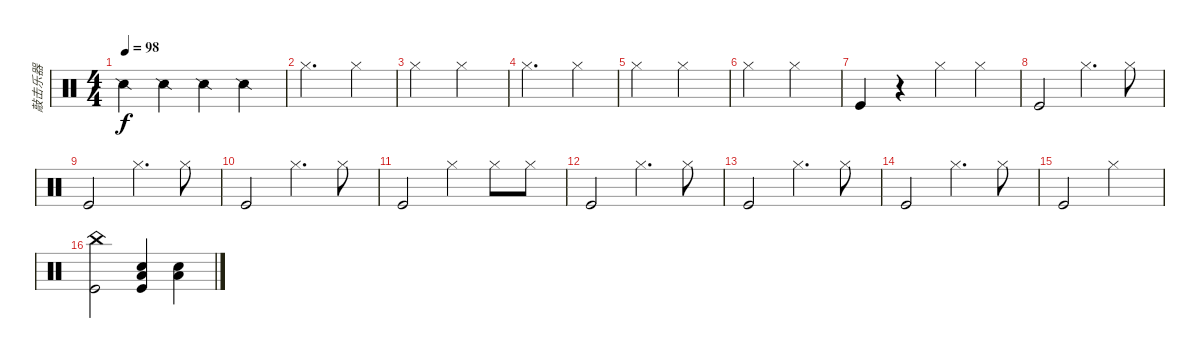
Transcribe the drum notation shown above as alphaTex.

\track ("敲击乐器" "敲击乐器") {instrument percussion}
\staff {score}
\articulation defaults
\ts (4 4)
\tempo 98
\clef neutral
\ks c "Snare (side stick) 2".4{dy f} "Snare (side stick) 2".4 "Snare (side stick) 2".4 "Snare (side stick) 2".4
|
"Hi-Hat (closed)".2{d} "Hi-Hat (closed)".4 |
"Hi-Hat (closed)".2 "Hi-Hat (closed)".2 |
"Hi-Hat (closed)".2{d} "Hi-Hat (closed)".4 |
"Hi-Hat (closed)".2 "Hi-Hat (closed)".2 |
"Hi-Hat (closed)".2 "Hi-Hat (closed)".2 |
"Kick (hit)".4 r.4 "Hi-Hat (closed)".4 "Hi-Hat (closed)".4 |
"Kick (hit)".2 "Hi-Hat (closed)".4{d} "Hi-Hat (closed)".8 |
"Kick (hit)".2 "Hi-Hat (closed)".4{d} "Hi-Hat (closed)".8 |
"Kick (hit)".2 "Hi-Hat (closed)".4{d} "Hi-Hat (closed)".8 |
"Kick (hit)".2 "Hi-Hat (closed)".4 "Hi-Hat (closed)".8 "Hi-Hat (closed)".8 |
"Kick (hit)".2 "Hi-Hat (closed)".4{d} "Hi-Hat (closed)".8 |
"Kick (hit)".2 "Hi-Hat (closed)".4{d} "Hi-Hat (closed)".8 |
"Kick (hit)".2 "Hi-Hat (closed)".4{d} "Hi-Hat (closed)".8 |
"Kick (hit)".2 "Hi-Hat (closed)".2 |
("China (hit)" "Kick (hit)").2 ("Low Floor Tom (hit)" "Snare (hit) 2" "Kick (hit)").4 ("Low Floor Tom (hit)" "Snare (hit) 2").4
